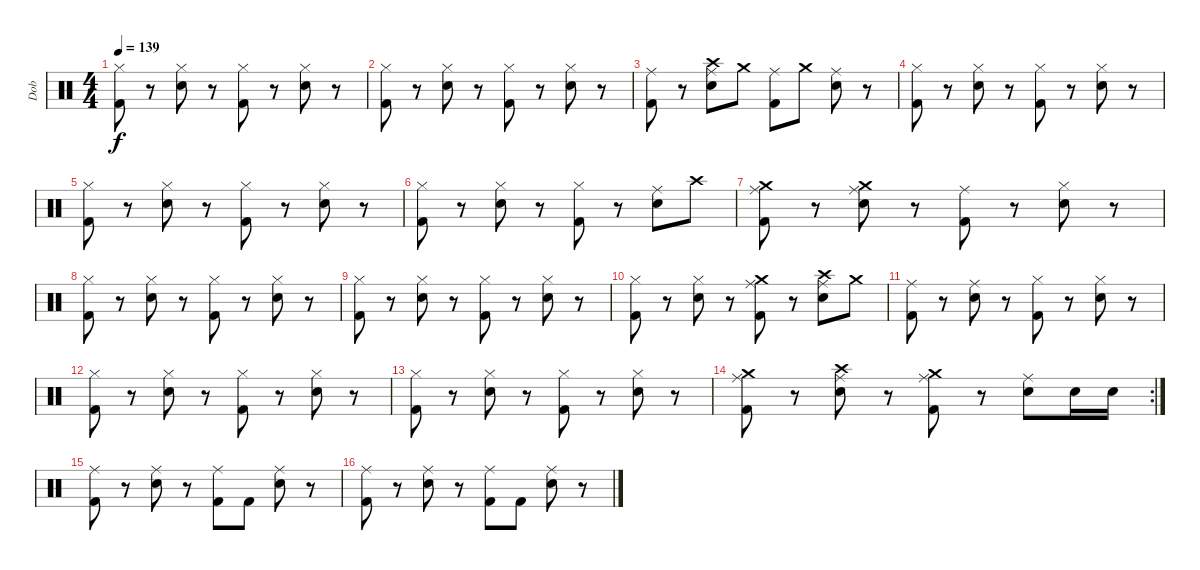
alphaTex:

\track ("Dob" "Dob") {instrument percussion}
\staff {score}
\articulation defaults
\ts (4 4)
\tempo 139
\clef neutral
\ks c
("Hi-Hat (closed)" "Kick (hit) 2").8{dy f} r.8 ("Hi-Hat (closed)" "Electric Snare (hit)").8 r.8 ("Hi-Hat (closed)" "Kick (hit) 2").8 r.8 ("Hi-Hat (closed)" "Electric Snare (hit)").8 r.8 |
("Hi-Hat (closed)" "Kick (hit) 2").8 r.8 ("Hi-Hat (closed)" "Electric Snare (hit)").8 r.8 ("Hi-Hat (closed)" "Kick (hit) 2").8 r.8 ("Hi-Hat (closed)" "Electric Snare (hit)").8 r.8 |
("Ride (middle)" "Kick (hit) 2").8 r.8 ("Ride (middle)" "Crash high (hit)" "Electric Snare (hit)").8 "Crash medium (hit)".8 ("Ride (middle)" "Kick (hit) 2").8 "Crash medium (hit)".8 ("Ride (middle)" "Electric Snare (hit)").8 r.8 |
("Hi-Hat (closed)" "Kick (hit) 2").8 r.8 ("Hi-Hat (closed)" "Electric Snare (hit)").8 r.8 ("Hi-Hat (closed)" "Kick (hit) 2").8 r.8 ("Hi-Hat (closed)" "Electric Snare (hit)").8 r.8 |
("Hi-Hat (closed)" "Kick (hit) 2").8 r.8 ("Hi-Hat (closed)" "Electric Snare (hit)").8 r.8 ("Hi-Hat (closed)" "Kick (hit) 2").8 r.8 ("Hi-Hat (closed)" "Electric Snare (hit)").8 r.8 |
("Hi-Hat (closed)" "Kick (hit) 2").8 r.8 ("Hi-Hat (closed)" "Electric Snare (hit)").8 r.8 ("Hi-Hat (closed)" "Kick (hit) 2").8 r.8 ("Ride (middle)" "Electric Snare (hit)").8 "Crash high (hit)".8 |
("Ride (middle)" "Crash medium (hit)" "Kick (hit) 2").8 r.8 ("Ride (middle)" "Crash medium (hit)" "Electric Snare (hit)").8 r.8 ("Ride (middle)" "Kick (hit) 2").8 r.8 ("Hi-Hat (closed)" "Electric Snare (hit)").8 r.8 |
("Hi-Hat (closed)" "Kick (hit) 2").8 r.8 ("Hi-Hat (closed)" "Electric Snare (hit)").8 r.8 ("Hi-Hat (closed)" "Kick (hit) 2").8 r.8 ("Hi-Hat (closed)" "Electric Snare (hit)").8 r.8 |
("Hi-Hat (closed)" "Kick (hit) 2").8 r.8 ("Hi-Hat (closed)" "Electric Snare (hit)").8 r.8 ("Hi-Hat (closed)" "Kick (hit) 2").8 r.8 ("Hi-Hat (closed)" "Electric Snare (hit)").8 r.8 |
("Hi-Hat (closed)" "Kick (hit) 2").8 r.8 ("Hi-Hat (closed)" "Electric Snare (hit)").8 r.8 ("Ride (middle)" "Crash medium (hit)" "Kick (hit) 2").8 r.8 ("Ride (middle)" "Crash high (hit)" "Electric Snare (hit)").8 "Crash medium (hit)".8 |
("Ride (middle)" "Kick (hit) 2").8 r.8 ("Ride (middle)" "Electric Snare (hit)").8 r.8 ("Hi-Hat (closed)" "Kick (hit) 2").8 r.8 ("Hi-Hat (closed)" "Electric Snare (hit)").8 r.8 |
("Hi-Hat (closed)" "Kick (hit) 2").8 r.8 ("Hi-Hat (closed)" "Electric Snare (hit)").8 r.8 ("Hi-Hat (closed)" "Kick (hit) 2").8 r.8 ("Hi-Hat (closed)" "Electric Snare (hit)").8 r.8 |
("Hi-Hat (closed)" "Kick (hit) 2").8 r.8 ("Hi-Hat (closed)" "Electric Snare (hit)").8 r.8 ("Hi-Hat (closed)" "Kick (hit) 2").8 r.8 ("Hi-Hat (closed)" "Electric Snare (hit)").8 r.8 |
\rc 2
("Ride (middle)" "Crash medium (hit)" "Kick (hit) 2").8 r.8 ("Ride (middle)" "Crash high (hit)" "Electric Snare (hit)").8 r.8 ("Ride (middle)" "Crash medium (hit)" "Kick (hit) 2").8 r.8 ("Ride (middle)" "Electric Snare (hit)").8 "Electric Snare (hit)".16 "Electric Snare (hit)".16 |
("Ride (middle)" "Kick (hit) 2").8 r.8 ("Ride (middle)" "Electric Snare (hit)").8 r.8 ("Ride (middle)" "Kick (hit) 2").8 "Kick (hit) 2".8 ("Ride (middle)" "Electric Snare (hit)").8 r.8 |
("Ride (middle)" "Kick (hit) 2").8 r.8 ("Ride (middle)" "Electric Snare (hit)").8 r.8 ("Ride (middle)" "Kick (hit) 2").8 "Kick (hit) 2".8 ("Ride (middle)" "Electric Snare (hit)").8 r.8
